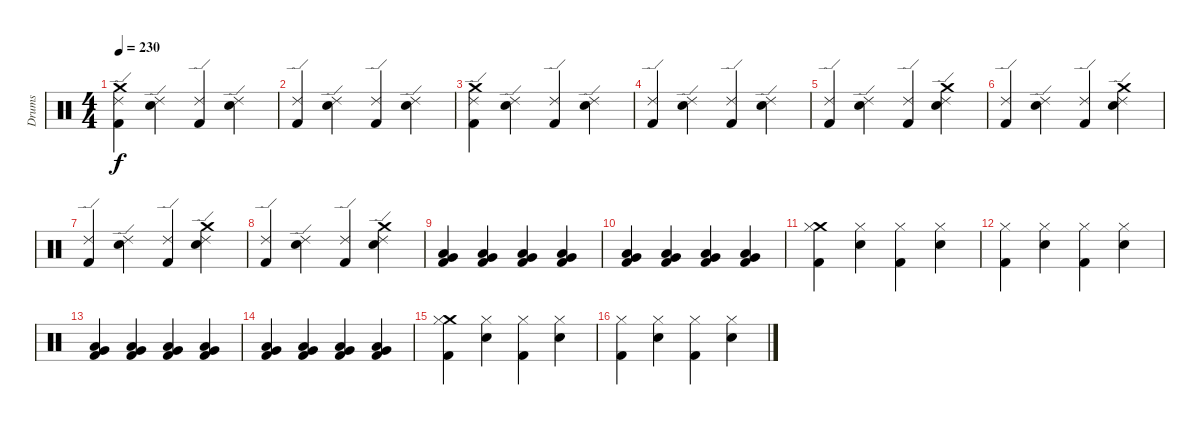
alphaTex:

\track ("Drums" "Drums") {instrument percussion}
\staff {score}
\articulation defaults
\ts (4 4)
\tempo 230
\clef neutral
\ks c
("Crash medium (hit)" "Ride (edge) 2" "Kick (hit) 2").4{dy f} ("Ride (edge) 2" "Snare (hit) 2").4 ("Ride (edge) 2" "Kick (hit) 2").4 ("Ride (edge) 2" "Snare (hit) 2").4 |
("Ride (edge) 2" "Kick (hit) 2").4 ("Ride (edge) 2" "Snare (hit) 2").4 ("Ride (edge) 2" "Kick (hit) 2").4 ("Ride (edge) 2" "Snare (hit) 2").4 |
("Crash medium (hit)" "Ride (edge) 2" "Kick (hit) 2").4 ("Ride (edge) 2" "Snare (hit) 2").4 ("Ride (edge) 2" "Kick (hit) 2").4 ("Ride (edge) 2" "Snare (hit) 2").4 |
("Ride (edge) 2" "Kick (hit) 2").4 ("Ride (edge) 2" "Snare (hit) 2").4 ("Ride (edge) 2" "Kick (hit) 2").4 ("Ride (edge) 2" "Snare (hit) 2").4 |
("Kick (hit) 2" "Ride (edge) 2").4 ("Snare (hit) 2" "Ride (edge) 2").4 ("Kick (hit) 2" "Ride (edge) 2").4 ("Crash medium (hit)" "Snare (hit) 2" "Ride (edge) 2").4 |
("Kick (hit) 2" "Ride (edge) 2").4 ("Snare (hit) 2" "Ride (edge) 2").4 ("Kick (hit) 2" "Ride (edge) 2").4 ("Crash medium (hit)" "Snare (hit) 2" "Ride (edge) 2").4 |
("Kick (hit) 2" "Ride (edge) 2").4 ("Snare (hit) 2" "Ride (edge) 2").4 ("Kick (hit) 2" "Ride (edge) 2").4 ("Crash medium (hit)" "Snare (hit) 2" "Ride (edge) 2").4 |
("Kick (hit) 2" "Ride (edge) 2").4 ("Snare (hit) 2" "Ride (edge) 2").4 ("Kick (hit) 2" "Ride (edge) 2").4 ("Crash medium (hit)" "Snare (hit) 2" "Ride (edge) 2").4 |
("Very Low Tom (hit)" "Low Tom (hit)" "Kick (hit) 2").4 ("Very Low Tom (hit)" "Low Tom (hit)" "Kick (hit) 2").4 ("Very Low Tom (hit)" "Low Tom (hit)" "Kick (hit) 2").4 ("Very Low Tom (hit)" "Low Tom (hit)" "Kick (hit) 2").4 |
("Very Low Tom (hit)" "Low Tom (hit)" "Kick (hit) 2").4 ("Very Low Tom (hit)" "Low Tom (hit)" "Kick (hit) 2").4 ("Very Low Tom (hit)" "Low Tom (hit)" "Kick (hit) 2").4 ("Very Low Tom (hit)" "Low Tom (hit)" "Kick (hit) 2").4 |
("Crash medium (hit)" "Hi-Hat (closed)" "Kick (hit) 2").4 ("Hi-Hat (closed)" "Snare (hit) 2").4 ("Hi-Hat (closed)" "Kick (hit) 2").4 ("Hi-Hat (closed)" "Snare (hit) 2").4 |
("Hi-Hat (closed)" "Kick (hit) 2").4 ("Hi-Hat (closed)" "Snare (hit) 2").4 ("Hi-Hat (closed)" "Kick (hit) 2").4 ("Hi-Hat (closed)" "Snare (hit) 2").4 |
("Very Low Tom (hit)" "Low Tom (hit)" "Kick (hit) 2").4 ("Very Low Tom (hit)" "Low Tom (hit)" "Kick (hit) 2").4 ("Very Low Tom (hit)" "Low Tom (hit)" "Kick (hit) 2").4 ("Very Low Tom (hit)" "Low Tom (hit)" "Kick (hit) 2").4 |
("Very Low Tom (hit)" "Low Tom (hit)" "Kick (hit) 2").4 ("Very Low Tom (hit)" "Low Tom (hit)" "Kick (hit) 2").4 ("Very Low Tom (hit)" "Low Tom (hit)" "Kick (hit) 2").4 ("Very Low Tom (hit)" "Low Tom (hit)" "Kick (hit) 2").4 |
("Crash medium (hit)" "Hi-Hat (closed)" "Kick (hit) 2").4 ("Hi-Hat (closed)" "Snare (hit) 2").4 ("Hi-Hat (closed)" "Kick (hit) 2").4 ("Hi-Hat (closed)" "Snare (hit) 2").4 |
("Hi-Hat (closed)" "Kick (hit) 2").4 ("Hi-Hat (closed)" "Snare (hit) 2").4 ("Hi-Hat (closed)" "Kick (hit) 2").4 ("Hi-Hat (closed)" "Snare (hit) 2").4
